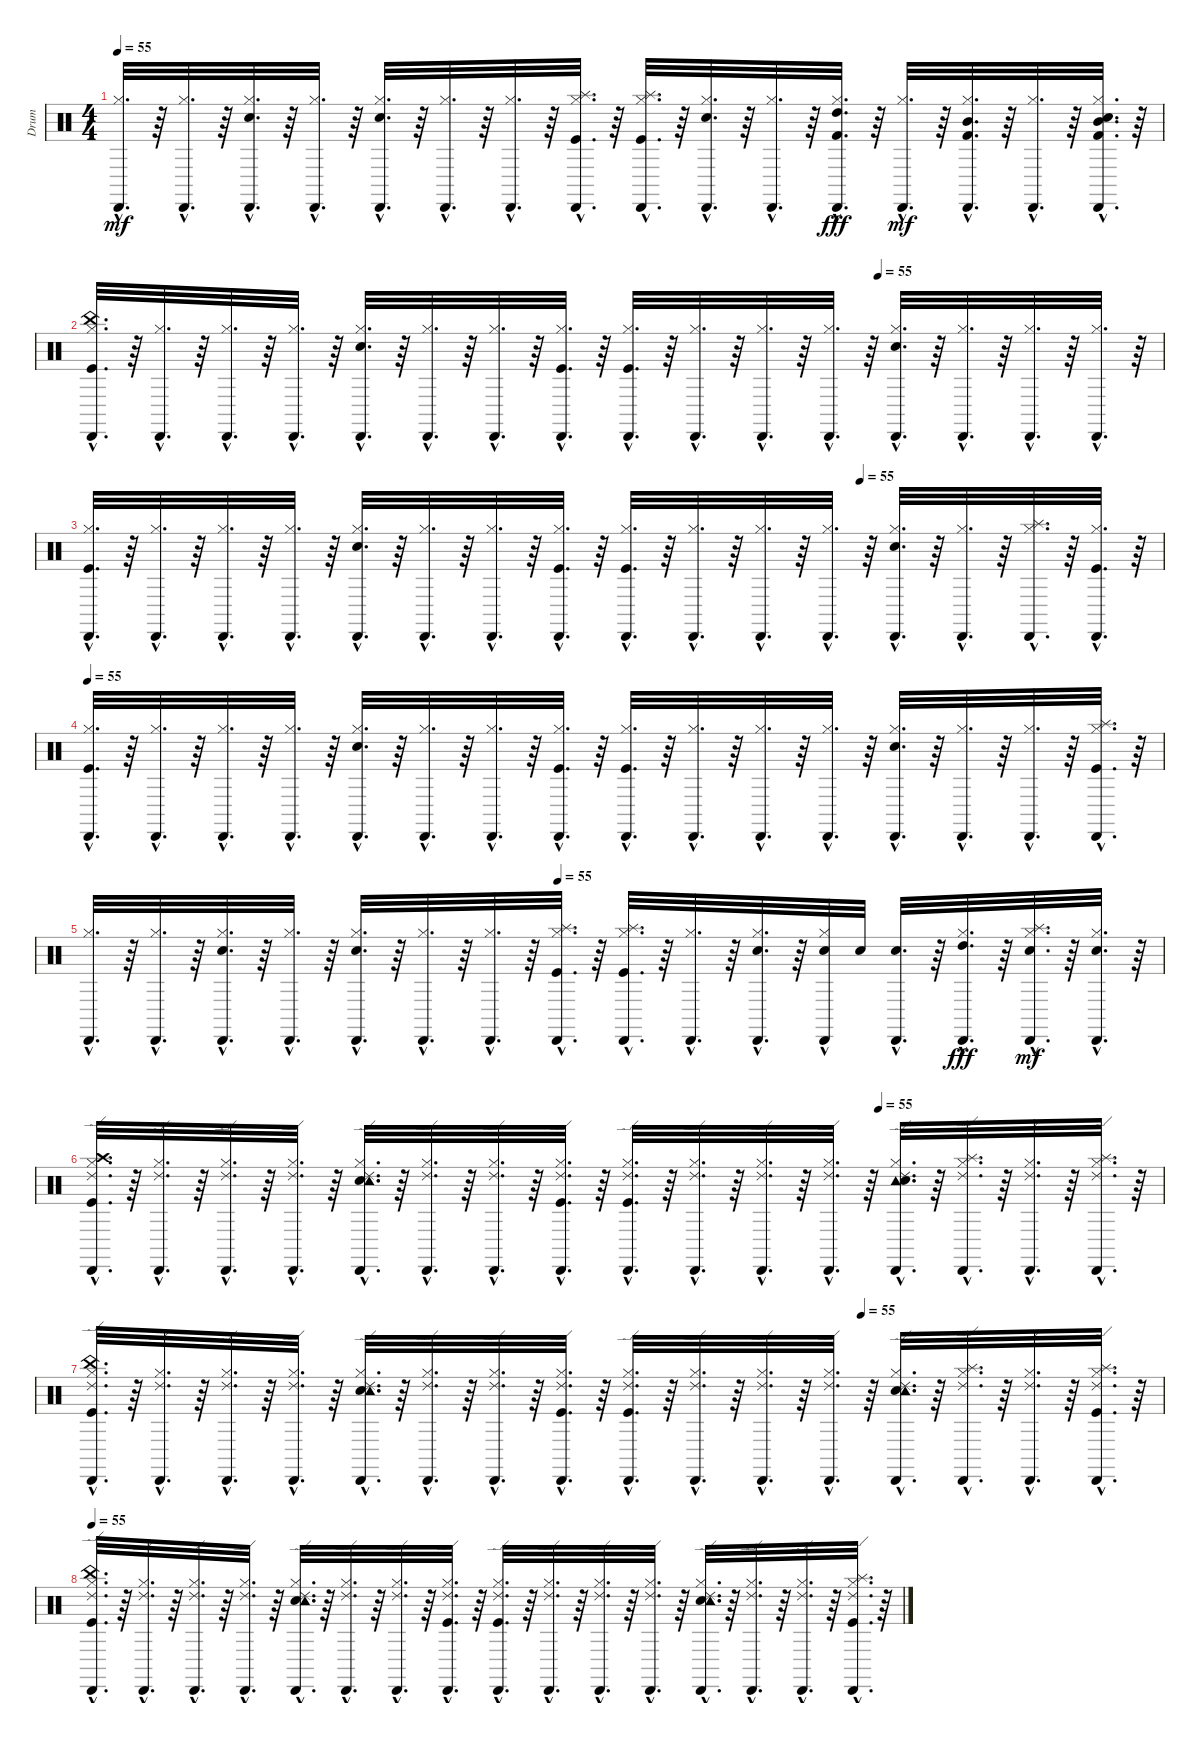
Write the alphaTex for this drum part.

\track ("Drum" "Drum") {instrument percussion}
\staff {score}
\articulation defaults
\ts (4 4)
\tempo 55
\clef neutral
\ks c
("Cabasa (hit)"{hac} "Hi-Hat (closed)"{hac}).32{d dy mf} r.64 ("Cabasa (hit)"{hac} "Hi-Hat (closed)"{hac}).32{d} r.64 ("Cabasa (hit)"{hac} "Snare (hit) 2"{hac} "Hi-Hat (closed)"{hac}).32{d} r.64 ("Cabasa (hit)"{hac} "Hi-Hat (closed)"{hac}).32{d} r.64 ("Cabasa (hit)"{hac} "Snare (hit) 2"{hac} "Hi-Hat (closed)"{hac}).32{d} r.64 ("Cabasa (hit)"{hac} "Hi-Hat (closed)"{hac}).32{d} r.64 ("Cabasa (hit)"{hac} "Hi-Hat (closed)"{hac}).32{d} r.64 ("Cabasa (hit)"{hac} "Splash (hit)"{hac} "Kick (hit)"{hac} "Hi-Hat (closed)"{hac}).32{d} r.64 ("Cabasa (hit)"{hac} "Splash (hit)"{hac} "Kick (hit)"{hac} "Hi-Hat (closed)"{hac}).32{d} r.64 ("Cabasa (hit)"{hac} "Hi-Hat (closed)"{hac} "Electric Snare (hit)"{hac}).32{d} r.64 ("Cabasa (hit)"{hac} "Hi-Hat (closed)"{hac}).32{d} r.64 ("Cabasa (hit)"{hac} "Hi-Hat (closed)"{hac} "Kick (hit) 2"{hac} "High Tom (hit)"{hac}).32{d dy fff} r.64 ("Cabasa (hit)"{hac} "Hi-Hat (closed)"{hac}).32{d dy mf} r.64 ("Cabasa (hit)"{hac} "Hi-Hat (closed)"{hac} "Mid Tom (hit)"{hac} "Kick (hit) 2"{hac}).32{d} r.64 ("Cabasa (hit)"{hac} "Hi-Hat (closed)"{hac}).32{d} r.64 ("Cabasa (hit)"{hac} "Hi-Hat (closed)"{hac} "Mid Tom (hit)"{hac} "Kick (hit) 2"{hac} "Electric Snare (hit)"{hac}).32{d} r.64 |
\tempo (55 0.734375)
("Cabasa (hit)"{hac} "Kick (hit)"{hac} "Hi-Hat (closed)"{hac} "China (hit)"{hac}).32{d} r.64 ("Cabasa (hit)"{hac} "Hi-Hat (closed)"{hac}).32{d} r.64 ("Cabasa (hit)"{hac} "Hi-Hat (closed)"{hac}).32{d} r.64 ("Cabasa (hit)"{hac} "Hi-Hat (closed)"{hac}).32{d} r.64 ("Cabasa (hit)"{hac} "Hi-Hat (closed)"{hac} "Snare (hit) 2"{hac}).32{d} r.64 ("Cabasa (hit)"{hac} "Hi-Hat (closed)"{hac}).32{d} r.64 ("Cabasa (hit)"{hac} "Hi-Hat (closed)"{hac}).32{d} r.64 ("Cabasa (hit)"{hac} "Kick (hit)"{hac} "Hi-Hat (closed)"{hac}).32{d} r.64 ("Cabasa (hit)"{hac} "Hi-Hat (closed)"{hac} "Kick (hit)"{hac}).32{d} r.64 ("Cabasa (hit)"{hac} "Hi-Hat (closed)"{hac}).32{d} r.64 ("Cabasa (hit)"{hac} "Hi-Hat (closed)"{hac}).32{d} r.64 ("Cabasa (hit)"{hac} "Hi-Hat (closed)"{hac}).32{d} r.64 ("Cabasa (hit)"{hac} "Snare (hit) 2"{hac} "Hi-Hat (closed)"{hac}).32{d} r.64 ("Cabasa (hit)"{hac} "Hi-Hat (closed)"{hac}).32{d} r.64 ("Cabasa (hit)"{hac} "Hi-Hat (closed)"{hac}).32{d} r.64 ("Cabasa (hit)"{hac} "Hi-Hat (closed)"{hac}).32{d} r.64 |
\tempo (55 0.71875)
("Cabasa (hit)"{hac} "Kick (hit)"{hac} "Hi-Hat (closed)"{hac}).32{d} r.64 ("Cabasa (hit)"{hac} "Hi-Hat (closed)"{hac}).32{d} r.64 ("Cabasa (hit)"{hac} "Hi-Hat (closed)"{hac}).32{d} r.64 ("Cabasa (hit)"{hac} "Hi-Hat (closed)"{hac}).32{d} r.64 ("Cabasa (hit)"{hac} "Snare (hit) 2"{hac} "Hi-Hat (closed)"{hac}).32{d} r.64 ("Cabasa (hit)"{hac} "Hi-Hat (closed)"{hac}).32{d} r.64 ("Cabasa (hit)"{hac} "Hi-Hat (closed)"{hac}).32{d} r.64 ("Cabasa (hit)"{hac} "Hi-Hat (closed)"{hac} "Kick (hit)"{hac}).32{d} r.64 ("Cabasa (hit)"{hac} "Kick (hit)"{hac} "Hi-Hat (closed)"{hac}).32{d} r.64 ("Cabasa (hit)"{hac} "Hi-Hat (closed)"{hac}).32{d} r.64 ("Cabasa (hit)"{hac} "Hi-Hat (closed)"{hac}).32{d} r.64 ("Cabasa (hit)"{hac} "Hi-Hat (closed)"{hac}).32{d} r.64 ("Cabasa (hit)"{hac} "Snare (hit) 2"{hac} "Hi-Hat (closed)"{hac}).32{d} r.64 ("Cabasa (hit)"{hac} "Hi-Hat (closed)"{hac}).32{d} r.64 ("Cabasa (hit)"{hac} "Hi-Hat (closed)"{hac} "Splash (hit)"{hac}).32{d} r.64 ("Cabasa (hit)"{hac} "Kick (hit)"{hac} "Hi-Hat (closed)"{hac}).32{d} r.64 |
\tempo 55
("Cabasa (hit)"{hac} "Kick (hit)"{hac} "Hi-Hat (closed)"{hac}).32{d} r.64 ("Cabasa (hit)"{hac} "Hi-Hat (closed)"{hac}).32{d} r.64 ("Cabasa (hit)"{hac} "Hi-Hat (closed)"{hac}).32{d} r.64 ("Cabasa (hit)"{hac} "Hi-Hat (closed)"{hac}).32{d} r.64 ("Cabasa (hit)"{hac} "Snare (hit) 2"{hac} "Hi-Hat (closed)"{hac}).32{d} r.64 ("Cabasa (hit)"{hac} "Hi-Hat (closed)"{hac}).32{d} r.64 ("Cabasa (hit)"{hac} "Hi-Hat (closed)"{hac}).32{d} r.64 ("Cabasa (hit)"{hac} "Hi-Hat (closed)"{hac} "Kick (hit)"{hac}).32{d} r.64 ("Cabasa (hit)"{hac} "Kick (hit)"{hac} "Hi-Hat (closed)"{hac}).32{d} r.64 ("Cabasa (hit)"{hac} "Hi-Hat (closed)"{hac}).32{d} r.64 ("Cabasa (hit)"{hac} "Hi-Hat (closed)"{hac}).32{d} r.64 ("Cabasa (hit)"{hac} "Hi-Hat (closed)"{hac}).32{d} r.64 ("Cabasa (hit)"{hac} "Snare (hit) 2"{hac} "Hi-Hat (closed)"{hac}).32{d} r.64 ("Cabasa (hit)"{hac} "Hi-Hat (closed)"{hac}).32{d} r.64 ("Cabasa (hit)"{hac} "Hi-Hat (closed)"{hac}).32{d} r.64 ("Splash (hit)"{hac} "Cabasa (hit)"{hac} "Kick (hit)"{hac} "Hi-Hat (closed)"{hac}).32{d} r.64 |
\tempo (55 0.4375)
("Cabasa (hit)"{hac} "Hi-Hat (closed)"{hac}).32{d} r.64 ("Cabasa (hit)"{hac} "Hi-Hat (closed)"{hac}).32{d} r.64 ("Cabasa (hit)"{hac} "Snare (hit) 2"{hac} "Hi-Hat (closed)"{hac}).32{d} r.64 ("Cabasa (hit)"{hac} "Hi-Hat (closed)"{hac}).32{d} r.64 ("Cabasa (hit)"{hac} "Snare (hit) 2"{hac} "Hi-Hat (closed)"{hac}).32{d} r.64 ("Cabasa (hit)"{hac} "Hi-Hat (closed)"{hac}).32{d} r.64 ("Cabasa (hit)"{hac} "Hi-Hat (closed)"{hac}).32{d} r.64 ("Cabasa (hit)"{hac} "Splash (hit)"{hac} "Kick (hit)"{hac} "Hi-Hat (closed)"{hac}).32{d} r.64 ("Cabasa (hit)"{hac} "Splash (hit)"{hac} "Kick (hit)"{hac} "Hi-Hat (closed)"{hac}).32{d} r.64 ("Cabasa (hit)"{hac} "Hi-Hat (closed)"{hac}).32{d} r.64 ("Cabasa (hit)"{hac} "Hi-Hat (closed)"{hac} "Snare (hit) 2"{hac}).32{d} r.64 ("Cabasa (hit)"{hac} "Hi-Hat (closed)" "Snare (hit) 2").32 "Snare (hit) 2".32 ("Cabasa (hit)"{hac} "Snare (hit) 2"{hac}).32{d} r.64 ("Cabasa (hit)"{hac} "Hi-Hat (closed)"{hac} "High Tom (hit)"{hac}).32{d dy fff} r.64 ("Cabasa (hit)"{hac} "Hi-Hat (closed)"{hac} "Splash (hit)"{hac} "Snare (hit) 2"{hac}).32{d dy mf} r.64 ("Cabasa (hit)"{hac} "Hi-Hat (closed)"{hac} "Snare (hit) 2"{hac}).32{d} r.64 |
\tempo (55 0.734375)
("Cabasa (hit)"{hac} "Hi-Hat (closed)"{hac} "Kick (hit)"{hac} "Crash high (hit)"{hac} "Ride (edge) 2"{hac}).32{d} r.64 ("Cabasa (hit)"{hac} "Hi-Hat (closed)"{hac} "Ride (edge) 2"{hac}).32{d} r.64 ("Cabasa (hit)"{hac} "Hi-Hat (closed)"{hac} "Ride (edge) 2"{hac}).32{d} r.64 ("Cabasa (hit)"{hac} "Hi-Hat (closed)"{hac} "Ride (edge) 2"{hac}).32{d} r.64 ("Cabasa (hit)"{hac} "Snare (hit) 2"{hac} "Ride (edge) 2"{hac} "Tambourine (hit)"{hac} "Hi-Hat (closed)"{hac}).32{d} r.64 ("Cabasa (hit)"{hac} "Ride (edge) 2"{hac} "Hi-Hat (closed)"{hac}).32{d} r.64 ("Cabasa (hit)"{hac} "Hi-Hat (closed)"{hac} "Ride (edge) 2"{hac}).32{d} r.64 ("Cabasa (hit)"{hac} "Hi-Hat (closed)"{hac} "Kick (hit)"{hac} "Ride (edge) 2"{hac}).32{d} r.64 ("Cabasa (hit)"{hac} "Hi-Hat (closed)"{hac} "Ride (edge) 2"{hac} "Kick (hit)"{hac}).32{d} r.64 ("Cabasa (hit)"{hac} "Hi-Hat (closed)"{hac} "Ride (edge) 2"{hac}).32{d} r.64 ("Cabasa (hit)"{hac} "Hi-Hat (closed)"{hac} "Ride (edge) 2"{hac}).32{d} r.64 ("Cabasa (hit)"{hac} "Hi-Hat (closed)"{hac} "Ride (edge) 2"{hac}).32{d} r.64 ("Cabasa (hit)"{hac} "Tambourine (hit)"{hac} "Snare (hit) 2"{hac} "Ride (edge) 2"{hac} "Hi-Hat (closed)"{hac}).32{d} r.64 ("Cabasa (hit)"{hac} "Hi-Hat (closed)"{hac} "Ride (edge) 2"{hac} "Splash (hit)"{hac}).32{d} r.64 ("Cabasa (hit)"{hac} "Ride (edge) 2"{hac} "Hi-Hat (closed)"{hac}).32{d} r.64 ("Cabasa (hit)"{hac} "Hi-Hat (closed)"{hac} "Ride (edge) 2"{hac} "Splash (hit)"{hac}).32{d} r.64 |
\tempo (55 0.71875)
("Cabasa (hit)"{hac} "Hi-Hat (closed)"{hac} "Kick (hit)"{hac} "Ride (edge) 2"{hac} "China (hit)"{hac}).32{d} r.64 ("Cabasa (hit)"{hac} "Hi-Hat (closed)"{hac} "Ride (edge) 2"{hac}).32{d} r.64 ("Cabasa (hit)"{hac} "Hi-Hat (closed)"{hac} "Ride (edge) 2"{hac}).32{d} r.64 ("Cabasa (hit)"{hac} "Hi-Hat (closed)"{hac} "Ride (edge) 2"{hac}).32{d} r.64 ("Cabasa (hit)"{hac} "Hi-Hat (closed)"{hac} "Snare (hit) 2"{hac} "Tambourine (hit)"{hac} "Ride (edge) 2"{hac}).32{d} r.64 ("Cabasa (hit)"{hac} "Hi-Hat (closed)"{hac} "Ride (edge) 2"{hac}).32{d} r.64 ("Cabasa (hit)"{hac} "Hi-Hat (closed)"{hac} "Ride (edge) 2"{hac}).32{d} r.64 ("Cabasa (hit)"{hac} "Kick (hit)"{hac} "Hi-Hat (closed)"{hac} "Ride (edge) 2"{hac}).32{d} r.64 ("Cabasa (hit)"{hac} "Hi-Hat (closed)"{hac} "Kick (hit)"{hac} "Ride (edge) 2"{hac}).32{d} r.64 ("Cabasa (hit)"{hac} "Hi-Hat (closed)"{hac} "Ride (edge) 2"{hac}).32{d} r.64 ("Cabasa (hit)"{hac} "Hi-Hat (closed)"{hac} "Ride (edge) 2"{hac}).32{d} r.64 ("Cabasa (hit)"{hac} "Hi-Hat (closed)"{hac} "Ride (edge) 2"{hac}).32{d} r.64 ("Cabasa (hit)"{hac} "Hi-Hat (closed)"{hac} "Snare (hit) 2"{hac} "Tambourine (hit)"{hac} "Ride (edge) 2"{hac}).32{d} r.64 ("Cabasa (hit)"{hac} "Hi-Hat (closed)"{hac} "Ride (edge) 2"{hac} "Splash (hit)"{hac}).32{d} r.64 ("Cabasa (hit)"{hac} "Hi-Hat (closed)"{hac} "Ride (edge) 2"{hac}).32{d} r.64 ("Cabasa (hit)"{hac} "Hi-Hat (closed)"{hac} "Kick (hit)"{hac} "Ride (edge) 2"{hac} "Splash (hit)"{hac}).32{d} r.64 |
\tempo 55
("Cabasa (hit)"{hac} "Hi-Hat (closed)"{hac} "Kick (hit)"{hac} "China (hit)"{hac} "Ride (edge) 2"{hac}).32{d} r.64 ("Cabasa (hit)"{hac} "Hi-Hat (closed)"{hac} "Ride (edge) 2"{hac}).32{d} r.64 ("Cabasa (hit)"{hac} "Hi-Hat (closed)"{hac} "Ride (edge) 2"{hac}).32{d} r.64 ("Cabasa (hit)"{hac} "Hi-Hat (closed)"{hac} "Ride (edge) 2"{hac}).32{d} r.64 ("Cabasa (hit)"{hac} "Hi-Hat (closed)"{hac} "Snare (hit) 2"{hac} "Tambourine (hit)"{hac} "Ride (edge) 2"{hac}).32{d} r.64 ("Cabasa (hit)"{hac} "Hi-Hat (closed)"{hac} "Ride (edge) 2"{hac}).32{d} r.64 ("Cabasa (hit)"{hac} "Hi-Hat (closed)"{hac} "Ride (edge) 2"{hac}).32{d} r.64 ("Cabasa (hit)"{hac} "Kick (hit)"{hac} "Hi-Hat (closed)"{hac} "Ride (edge) 2"{hac}).32{d} r.64 ("Cabasa (hit)"{hac} "Hi-Hat (closed)"{hac} "Kick (hit)"{hac} "Ride (edge) 2"{hac}).32{d} r.64 ("Cabasa (hit)"{hac} "Hi-Hat (closed)"{hac} "Ride (edge) 2"{hac}).32{d} r.64 ("Cabasa (hit)"{hac} "Hi-Hat (closed)"{hac} "Ride (edge) 2"{hac}).32{d} r.64 ("Cabasa (hit)"{hac} "Hi-Hat (closed)"{hac} "Ride (edge) 2"{hac}).32{d} r.64 ("Cabasa (hit)"{hac} "Hi-Hat (closed)"{hac} "Snare (hit) 2"{hac} "Tambourine (hit)"{hac} "Ride (edge) 2"{hac}).32{d} r.64 ("Cabasa (hit)"{hac} "Hi-Hat (closed)"{hac} "Ride (edge) 2"{hac}).32{d} r.64 ("Cabasa (hit)"{hac} "Hi-Hat (closed)"{hac} "Ride (edge) 2"{hac}).32{d} r.64 ("Cabasa (hit)"{hac} "Hi-Hat (closed)"{hac} "Kick (hit)"{hac} "Splash (hit)"{hac} "Ride (edge) 2"{hac}).32{d} r.64
